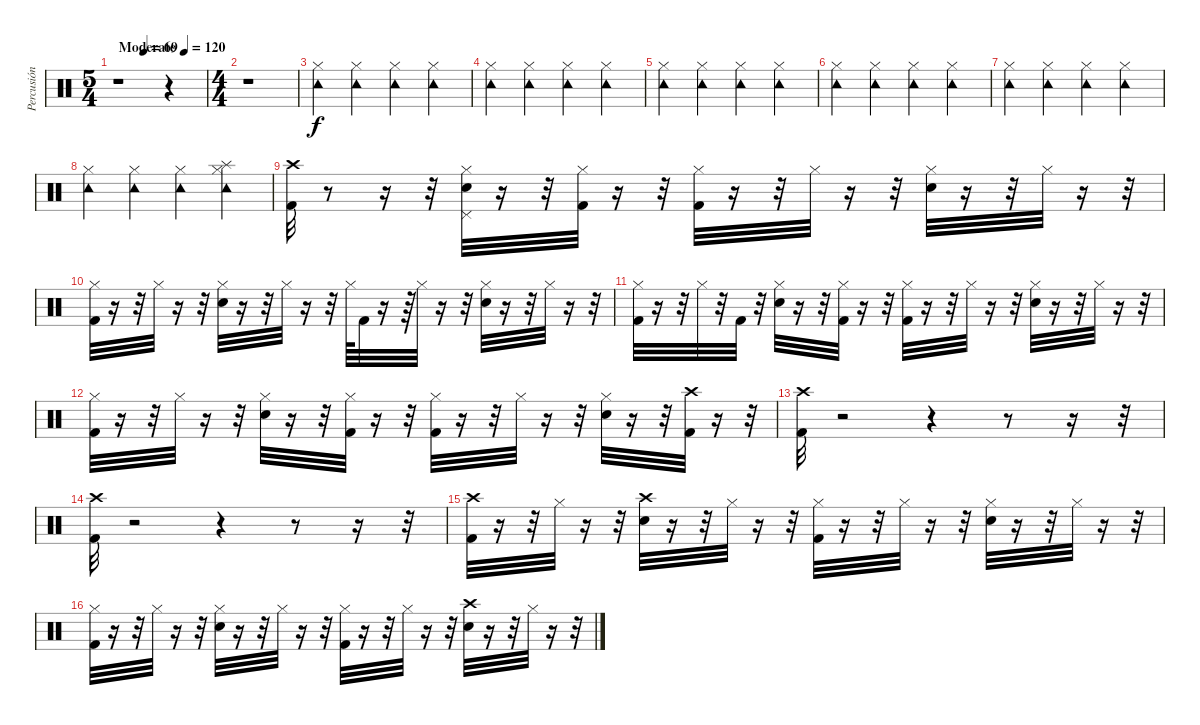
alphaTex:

\track ("Percusión" "Percusión") {instrument percussion}
\staff {score}
\articulation defaults
\ts (5 4)
\tempo (120 "Moderate")
\tempo (69 0.3)
\tempo (120 "Moderate")
\clef neutral
\ks c
r.1{dy f} r.4 |
\ts (4 4)
r.1 |
("Tambourine (hit)" "Hi-Hat (closed)").4 ("Tambourine (hit)" "Hi-Hat (closed)").4 ("Tambourine (hit)" "Hi-Hat (closed)").4 ("Tambourine (hit)" "Hi-Hat (closed)").4 |
("Tambourine (hit)" "Hi-Hat (closed)").4 ("Tambourine (hit)" "Hi-Hat (closed)").4 ("Tambourine (hit)" "Hi-Hat (closed)").4 ("Tambourine (hit)" "Hi-Hat (closed)").4 |
("Tambourine (hit)" "Hi-Hat (closed)").4 ("Tambourine (hit)" "Hi-Hat (closed)").4 ("Tambourine (hit)" "Hi-Hat (closed)").4 ("Tambourine (hit)" "Hi-Hat (closed)").4 |
("Tambourine (hit)" "Hi-Hat (closed)").4 ("Tambourine (hit)" "Hi-Hat (closed)").4 ("Tambourine (hit)" "Hi-Hat (closed)").4 ("Tambourine (hit)" "Hi-Hat (closed)").4 |
("Tambourine (hit)" "Hi-Hat (closed)").4 ("Tambourine (hit)" "Hi-Hat (closed)").4 ("Tambourine (hit)" "Hi-Hat (closed)").4 ("Tambourine (hit)" "Hi-Hat (closed)").4 |
("Tambourine (hit)" "Hi-Hat (closed)").4 ("Tambourine (hit)" "Hi-Hat (closed)").4 ("Tambourine (hit)" "Hi-Hat (closed)").4 ("Tambourine (hit)" "Hi-Hat (closed)" "Splash (hit)").4 |
("Kick (hit) 2" "Crash high (hit)").32 r.8 r.16 r.32 ("Snare (hit) 2" "Hi-Hat (closed)" "Pedal Hi-Hat (hit)").32 r.16 r.32 ("Hi-Hat (closed)" "Kick (hit) 2").32 r.16 r.32 ("Hi-Hat (closed)" "Kick (hit) 2").32 r.16 r.32 "Hi-Hat (closed)".32 r.16 r.32 ("Snare (hit) 2" "Hi-Hat (closed)").32 r.16 r.32 "Hi-Hat (closed)".32 r.16 r.32 |
("Hi-Hat (closed)" "Kick (hit) 2").32 r.16 r.32 "Hi-Hat (closed)".32 r.16 r.32 ("Snare (hit) 2" "Hi-Hat (closed)").32 r.16 r.32 "Hi-Hat (closed)".32 r.16 r.32 "Hi-Hat (closed)".64 "Kick (hit) 2".32 r.16 r.64 "Hi-Hat (closed)".32 r.16 r.32 ("Snare (hit) 2" "Hi-Hat (closed)").32 r.16 r.32 "Hi-Hat (closed)".32 r.16 r.32 |
("Hi-Hat (closed)" "Kick (hit) 2").32 r.16 r.32 "Hi-Hat (closed)".32 r.32 "Kick (hit) 2".32 r.32 ("Snare (hit) 2" "Hi-Hat (closed)").32 r.16 r.32 ("Hi-Hat (closed)" "Kick (hit) 2").32 r.16 r.32 ("Hi-Hat (closed)" "Kick (hit) 2").32 r.16 r.32 "Hi-Hat (closed)".32 r.16 r.32 ("Snare (hit) 2" "Hi-Hat (closed)").32 r.16 r.32 "Hi-Hat (closed)".32 r.16 r.32 |
("Kick (hit) 2" "Hi-Hat (closed)").32 r.16 r.32 "Hi-Hat (closed)".32 r.16 r.32 ("Snare (hit) 2" "Hi-Hat (closed)").32 r.16 r.32 ("Kick (hit) 2" "Hi-Hat (closed)").32 r.16 r.32 ("Hi-Hat (closed)" "Kick (hit) 2").32 r.16 r.32 "Hi-Hat (closed)".32 r.16 r.32 ("Snare (hit) 2" "Hi-Hat (closed)").32 r.16 r.32 ("Crash high (hit)" "Kick (hit) 2").32 r.16 r.32 |
("Kick (hit) 2" "Crash high (hit)").32 r.2 r.4 r.8 r.16 r.32 |
("Kick (hit) 2" "Crash high (hit)").32 r.2 r.4 r.8 r.16 r.32 |
("Kick (hit) 2" "Crash high (hit)").32 r.16 r.32 "Hi-Hat (closed)".32 r.16 r.32 ("Crash high (hit)" "Snare (hit) 2").32 r.16 r.32 "Hi-Hat (closed)".32 r.16 r.32 ("Hi-Hat (closed)" "Kick (hit) 2").32 r.16 r.32 "Hi-Hat (closed)".32 r.16 r.32 ("Snare (hit) 2" "Hi-Hat (closed)").32 r.16 r.32 "Hi-Hat (closed)".32 r.16 r.32 |
("Kick (hit) 2" "Hi-Hat (closed)").32 r.16 r.32 "Hi-Hat (closed)".32 r.16 r.32 ("Snare (hit) 2" "Hi-Hat (closed)").32 r.16 r.32 "Hi-Hat (closed)".32 r.16 r.32 ("Hi-Hat (closed)" "Kick (hit) 2").32 r.16 r.32 "Hi-Hat (closed)".32 r.16 r.32 ("Crash high (hit)" "Snare (hit) 2").32 r.16 r.32 "Hi-Hat (closed)".32 r.16 r.32
